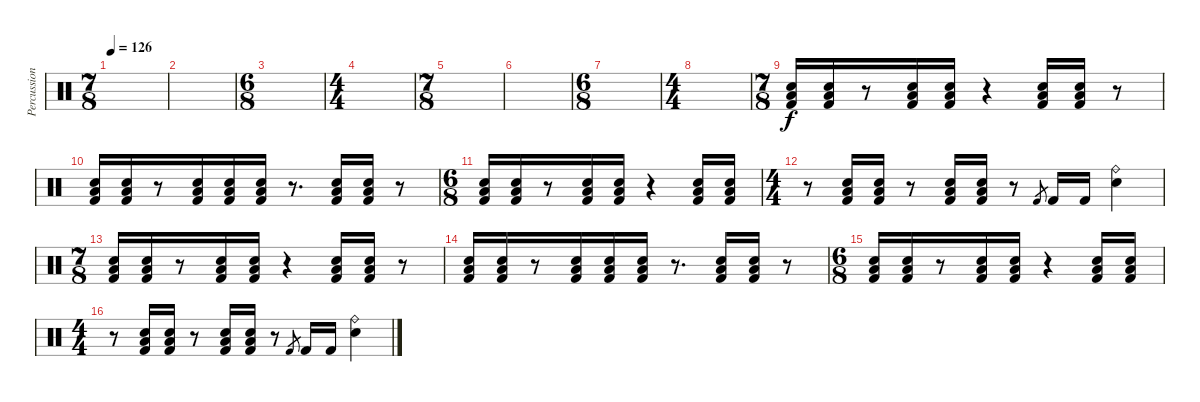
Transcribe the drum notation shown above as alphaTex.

\track ("Percussion" "Percussion") {instrument percussion}
\staff {score}
\articulation defaults
\ts (7 8)
\tempo 126
\clef neutral
\ks c
|
|
\ts (6 8)
|
\ts (4 4)
|
\ts (7 8)
|
|
\ts (6 8)
|
\ts (4 4)
|
\ts (7 8)
("Kick (hit) 2" "Electric Snare (hit)" "Low Floor Tom (hit)").16 ("Kick (hit) 2" "Low Floor Tom (hit)" "Electric Snare (hit)").16 r.8 ("Kick (hit) 2" "Low Floor Tom (hit)" "Electric Snare (hit)").16 ("Kick (hit) 2" "Low Floor Tom (hit)" "Electric Snare (hit)").16 r.4 ("Kick (hit) 2" "Low Floor Tom (hit)" "Electric Snare (hit)").16 ("Kick (hit) 2" "Low Floor Tom (hit)" "Electric Snare (hit)").16 r.8 |
("Kick (hit) 2" "Low Floor Tom (hit)" "Electric Snare (hit)").16 ("Kick (hit) 2" "Low Floor Tom (hit)" "Electric Snare (hit)").16 r.8 ("Kick (hit) 2" "Low Floor Tom (hit)" "Electric Snare (hit)").16 ("Kick (hit) 2" "Low Floor Tom (hit)" "Electric Snare (hit)").16 ("Kick (hit) 2" "Low Floor Tom (hit)" "Electric Snare (hit)").16 r.8{d} ("Kick (hit) 2" "Low Floor Tom (hit)" "Electric Snare (hit)").16 ("Kick (hit) 2" "Low Floor Tom (hit)" "Electric Snare (hit)").16 r.8 |
\ts (6 8)
("Kick (hit) 2" "Low Floor Tom (hit)" "Electric Snare (hit)").16 ("Kick (hit) 2" "Low Floor Tom (hit)" "Electric Snare (hit)").16 r.8 ("Kick (hit) 2" "Low Floor Tom (hit)" "Electric Snare (hit)").16 ("Kick (hit) 2" "Low Floor Tom (hit)" "Electric Snare (hit)").16 r.4 ("Kick (hit) 2" "Electric Snare (hit)" "Low Floor Tom (hit)").16 ("Kick (hit) 2" "Low Floor Tom (hit)" "Electric Snare (hit)").16 |
\ts (4 4)
r.8 ("Kick (hit) 2" "Low Floor Tom (hit)" "Electric Snare (hit)").16 ("Kick (hit) 2" "Low Floor Tom (hit)" "Electric Snare (hit)").16 r.8 ("Kick (hit) 2" "Low Floor Tom (hit)" "Electric Snare (hit)").16 ("Kick (hit) 2" "Low Floor Tom (hit)" "Electric Snare (hit)").16 r.8 "Kick (hit) 2".8{gr} "Kick (hit) 2".16 "Kick (hit) 2".16 ("Ride (bell)" "Electric Snare (hit)").4 |
\ts (7 8)
("Kick (hit) 2" "Electric Snare (hit)" "Low Floor Tom (hit)").16 ("Kick (hit) 2" "Low Floor Tom (hit)" "Electric Snare (hit)").16 r.8 ("Kick (hit) 2" "Low Floor Tom (hit)" "Electric Snare (hit)").16 ("Kick (hit) 2" "Low Floor Tom (hit)" "Electric Snare (hit)").16 r.4 ("Kick (hit) 2" "Low Floor Tom (hit)" "Electric Snare (hit)").16 ("Kick (hit) 2" "Low Floor Tom (hit)" "Electric Snare (hit)").16 r.8 |
("Kick (hit) 2" "Low Floor Tom (hit)" "Electric Snare (hit)").16 ("Kick (hit) 2" "Low Floor Tom (hit)" "Electric Snare (hit)").16 r.8 ("Kick (hit) 2" "Low Floor Tom (hit)" "Electric Snare (hit)").16 ("Kick (hit) 2" "Low Floor Tom (hit)" "Electric Snare (hit)").16 ("Kick (hit) 2" "Low Floor Tom (hit)" "Electric Snare (hit)").16 r.8{d} ("Kick (hit) 2" "Low Floor Tom (hit)" "Electric Snare (hit)").16 ("Kick (hit) 2" "Low Floor Tom (hit)" "Electric Snare (hit)").16 r.8 |
\ts (6 8)
("Kick (hit) 2" "Low Floor Tom (hit)" "Electric Snare (hit)").16 ("Kick (hit) 2" "Low Floor Tom (hit)" "Electric Snare (hit)").16 r.8 ("Kick (hit) 2" "Low Floor Tom (hit)" "Electric Snare (hit)").16 ("Kick (hit) 2" "Low Floor Tom (hit)" "Electric Snare (hit)").16 r.4 ("Kick (hit) 2" "Electric Snare (hit)" "Low Floor Tom (hit)").16 ("Kick (hit) 2" "Low Floor Tom (hit)" "Electric Snare (hit)").16 |
\ts (4 4)
r.8 ("Kick (hit) 2" "Low Floor Tom (hit)" "Electric Snare (hit)").16 ("Kick (hit) 2" "Low Floor Tom (hit)" "Electric Snare (hit)").16 r.8 ("Kick (hit) 2" "Low Floor Tom (hit)" "Electric Snare (hit)").16 ("Kick (hit) 2" "Low Floor Tom (hit)" "Electric Snare (hit)").16 r.8 "Kick (hit) 2".8{gr} "Kick (hit) 2".16 "Kick (hit) 2".16 ("Ride (bell)" "Electric Snare (hit)").4
